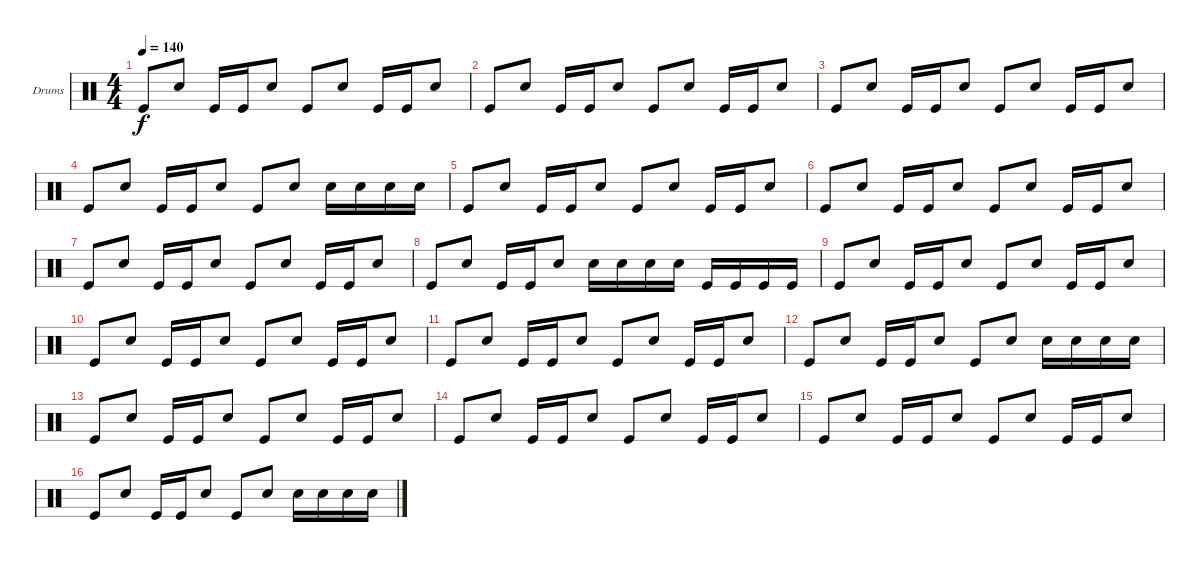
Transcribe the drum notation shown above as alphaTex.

\bracketExtendMode groupsimilarinstruments
\firstSystemTrackNameOrientation horizontal
\otherSystemsTrackNameOrientation horizontal
\track ("Drumkit" "Drums") {instrument percussion}
\staff {score}
\articulation defaults
\ts (4 4)
\tempo 140
\clef neutral
\ks c "Kick (hit)".8{dy f} "Snare (hit) 2".8 "Kick (hit)".16 "Kick (hit)".16 "Snare (hit) 2".8 "Kick (hit)".8 "Snare (hit) 2".8 "Kick (hit)".16 "Kick (hit)".16 "Snare (hit) 2".8
|
"Kick (hit)".8 "Snare (hit) 2".8 "Kick (hit)".16 "Kick (hit)".16 "Snare (hit) 2".8 "Kick (hit)".8 "Snare (hit) 2".8 "Kick (hit)".16 "Kick (hit)".16 "Snare (hit) 2".8 |
"Kick (hit)".8 "Snare (hit) 2".8 "Kick (hit)".16 "Kick (hit)".16 "Snare (hit) 2".8 "Kick (hit)".8 "Snare (hit) 2".8 "Kick (hit)".16 "Kick (hit)".16 "Snare (hit) 2".8 |
"Kick (hit)".8 "Snare (hit) 2".8 "Kick (hit)".16 "Kick (hit)".16 "Snare (hit) 2".8 "Kick (hit)".8 "Snare (hit) 2".8 "Snare (hit) 2".16 "Snare (hit) 2".16 "Snare (hit) 2".16 "Snare (hit) 2".16 |
"Kick (hit)".8 "Snare (hit) 2".8 "Kick (hit)".16 "Kick (hit)".16 "Snare (hit) 2".8 "Kick (hit)".8 "Snare (hit) 2".8 "Kick (hit)".16 "Kick (hit)".16 "Snare (hit) 2".8 |
"Kick (hit)".8 "Snare (hit) 2".8 "Kick (hit)".16 "Kick (hit)".16 "Snare (hit) 2".8 "Kick (hit)".8 "Snare (hit) 2".8 "Kick (hit)".16 "Kick (hit)".16 "Snare (hit) 2".8 |
"Kick (hit)".8 "Snare (hit) 2".8 "Kick (hit)".16 "Kick (hit)".16 "Snare (hit) 2".8 "Kick (hit)".8 "Snare (hit) 2".8 "Kick (hit)".16 "Kick (hit)".16 "Snare (hit) 2".8 |
"Kick (hit)".8 "Snare (hit) 2".8 "Kick (hit)".16 "Kick (hit)".16 "Snare (hit) 2".8 "Snare (hit) 2".16 "Snare (hit) 2".16 "Snare (hit) 2".16 "Snare (hit) 2".16 "Kick (hit)".16 "Kick (hit)".16 "Kick (hit)".16 "Kick (hit)".16 |
"Kick (hit)".8 "Snare (hit) 2".8 "Kick (hit)".16 "Kick (hit)".16 "Snare (hit) 2".8 "Kick (hit)".8 "Snare (hit) 2".8 "Kick (hit)".16 "Kick (hit)".16 "Snare (hit) 2".8 |
"Kick (hit)".8 "Snare (hit) 2".8 "Kick (hit)".16 "Kick (hit)".16 "Snare (hit) 2".8 "Kick (hit)".8 "Snare (hit) 2".8 "Kick (hit)".16 "Kick (hit)".16 "Snare (hit) 2".8 |
"Kick (hit)".8 "Snare (hit) 2".8 "Kick (hit)".16 "Kick (hit)".16 "Snare (hit) 2".8 "Kick (hit)".8 "Snare (hit) 2".8 "Kick (hit)".16 "Kick (hit)".16 "Snare (hit) 2".8 |
"Kick (hit)".8 "Snare (hit) 2".8 "Kick (hit)".16 "Kick (hit)".16 "Snare (hit) 2".8 "Kick (hit)".8 "Snare (hit) 2".8 "Snare (hit) 2".16 "Snare (hit) 2".16 "Snare (hit) 2".16 "Snare (hit) 2".16 |
"Kick (hit)".8 "Snare (hit) 2".8 "Kick (hit)".16 "Kick (hit)".16 "Snare (hit) 2".8 "Kick (hit)".8 "Snare (hit) 2".8 "Kick (hit)".16 "Kick (hit)".16 "Snare (hit) 2".8 |
"Kick (hit)".8 "Snare (hit) 2".8 "Kick (hit)".16 "Kick (hit)".16 "Snare (hit) 2".8 "Kick (hit)".8 "Snare (hit) 2".8 "Kick (hit)".16 "Kick (hit)".16 "Snare (hit) 2".8 |
"Kick (hit)".8 "Snare (hit) 2".8 "Kick (hit)".16 "Kick (hit)".16 "Snare (hit) 2".8 "Kick (hit)".8 "Snare (hit) 2".8 "Kick (hit)".16 "Kick (hit)".16 "Snare (hit) 2".8 |
"Kick (hit)".8 "Snare (hit) 2".8 "Kick (hit)".16 "Kick (hit)".16 "Snare (hit) 2".8 "Kick (hit)".8 "Snare (hit) 2".8 "Snare (hit) 2".16 "Snare (hit) 2".16 "Snare (hit) 2".16 "Snare (hit) 2".16
